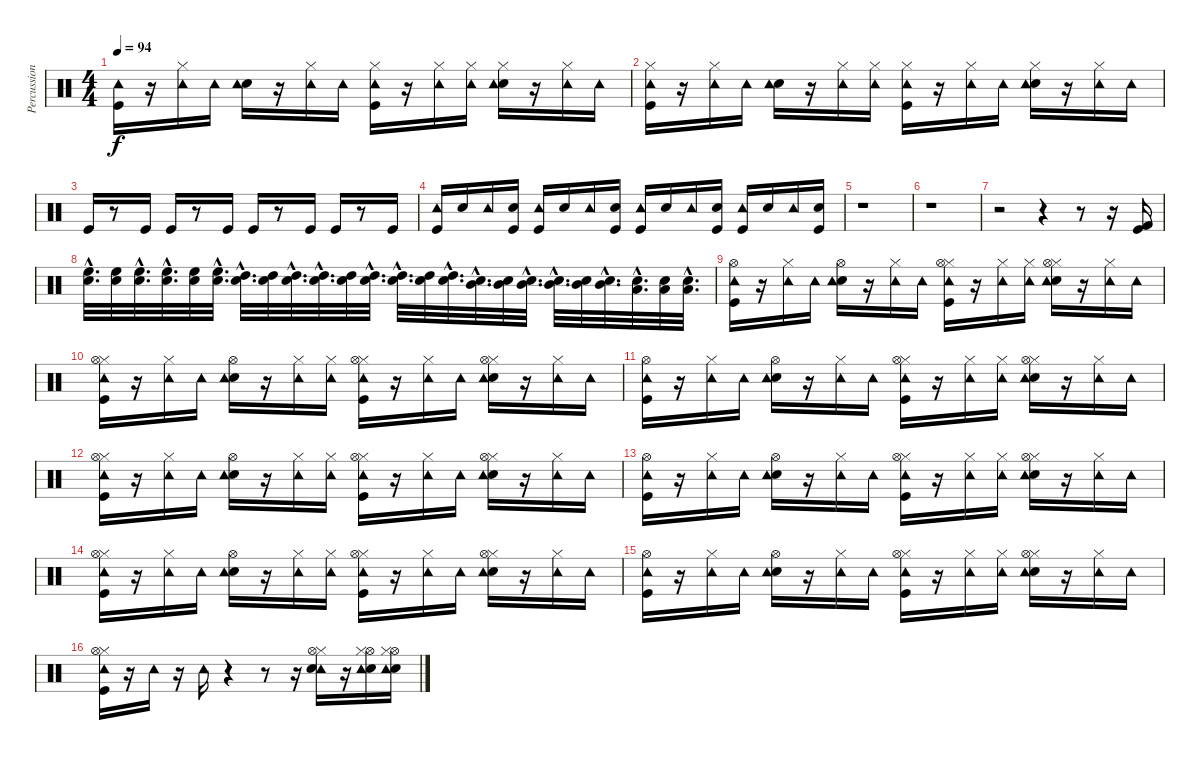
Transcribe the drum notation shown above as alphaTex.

\track ("Percussions/From Midi" "Percussion") {instrument percussion}
\staff {score}
\articulation defaults
\ts (4 4)
\tempo 94
\clef neutral
\ks c
("Kick (hit)" "Tambourine (hit)").16{dy f} r.16 ("Hi-Hat (closed)" "Tambourine (hit)").16 "Tambourine (hit)".16 ("Electric Snare (hit)" "Tambourine (hit)").16 r.16 ("Hi-Hat (closed)" "Tambourine (hit)").16 "Tambourine (hit)".16 ("Kick (hit)" "Hi-Hat (closed)" "Tambourine (hit)").16 r.16 ("Hi-Hat (closed)" "Tambourine (hit)").16 ("Hi-Hat (closed)" "Tambourine (hit)").16 ("Electric Snare (hit)" "Hi-Hat (closed)" "Tambourine (hit)").16 r.16 ("Hi-Hat (closed)" "Tambourine (hit)").16 "Tambourine (hit)".16 |
("Kick (hit)" "Hi-Hat (closed)" "Tambourine (hit)").16 r.16 ("Hi-Hat (closed)" "Tambourine (hit)").16 "Tambourine (hit)".16 ("Electric Snare (hit)" "Tambourine (hit)").16 r.16 ("Hi-Hat (closed)" "Tambourine (hit)").16 ("Hi-Hat (closed)" "Tambourine (hit)").16 ("Kick (hit)" "Hi-Hat (closed)" "Tambourine (hit)").16 r.16 ("Hi-Hat (closed)" "Tambourine (hit)").16 "Tambourine (hit)".16 ("Electric Snare (hit)" "Hi-Hat (closed)" "Tambourine (hit)").16 r.16 ("Hi-Hat (closed)" "Tambourine (hit)").16 "Tambourine (hit)".16 |
"Kick (hit)".16 r.8 "Kick (hit)".16 "Kick (hit)".16 r.8 "Kick (hit)".16 "Kick (hit)".16 r.8 "Kick (hit)".16 "Kick (hit)".16 r.8 "Kick (hit)".16 |
("Tambourine (hit)" "Kick (hit)").16 "Electric Snare (hit)".16 "Tambourine (hit)".16 ("Electric Snare (hit)" "Kick (hit)").16 ("Tambourine (hit)" "Kick (hit)").16 "Electric Snare (hit)".16 "Tambourine (hit)".16 ("Electric Snare (hit)" "Kick (hit)").16 ("Tambourine (hit)" "Kick (hit)").16 "Electric Snare (hit)".16 "Tambourine (hit)".16 ("Electric Snare (hit)" "Kick (hit)").16 ("Tambourine (hit)" "Kick (hit)").16 "Electric Snare (hit)".16 "Tambourine (hit)".16 ("Electric Snare (hit)" "Kick (hit)").16 |
r.1 |
r.1 |
r.2 r.4 r.8 r.16 ("Kick (hit) 2" "Kick (hit)").16 |
("High Floor Tom (hit)"{hac} "Electric Snare (hit)"{hac}).32{d} ("High Floor Tom (hit)" "Electric Snare (hit)").32 ("High Floor Tom (hit)"{hac} "Electric Snare (hit)"{hac}).32{d} ("High Floor Tom (hit)"{hac} "Electric Snare (hit)"{hac}).32{d} ("High Floor Tom (hit)" "Electric Snare (hit)").32 ("High Floor Tom (hit)"{hac} "Electric Snare (hit)"{hac}).32{d} ("High Tom (hit)"{hac} "Electric Snare (hit)"{hac}).32{d} ("High Tom (hit)" "Electric Snare (hit)").32 ("High Tom (hit)"{hac} "Electric Snare (hit)"{hac}).32{d} ("High Tom (hit)"{hac} "Electric Snare (hit)"{hac}).32{d} ("High Tom (hit)" "Electric Snare (hit)").32 ("High Tom (hit)"{hac} "Electric Snare (hit)"{hac}).32{d} ("High Tom (hit)"{hac} "Electric Snare (hit)"{hac}).32{d} ("High Tom (hit)" "Electric Snare (hit)").32 ("High Tom (hit)"{hac} "Electric Snare (hit)"{hac}).32{d} ("Mid Tom (hit)"{hac} "Electric Snare (hit)"{hac}).32{d} ("Mid Tom (hit)" "Electric Snare (hit)").32 ("Mid Tom (hit)"{hac} "Electric Snare (hit)"{hac}).32{d} ("Mid Tom (hit)"{hac} "Electric Snare (hit)"{hac}).32{d} ("Mid Tom (hit)" "Electric Snare (hit)").32 ("Mid Tom (hit)"{hac} "Electric Snare (hit)"{hac}).32{d} ("Electric Snare (hit)"{hac} "Low Floor Tom (hit)"{hac}).32{d} ("Low Floor Tom (hit)" "Electric Snare (hit)").32 ("Low Floor Tom (hit)"{hac} "Electric Snare (hit)"{hac}).32{d} |
("Kick (hit)" "Tambourine (hit)" "Hi-Hat (open)").16 r.16 ("Hi-Hat (closed)" "Tambourine (hit)").16 "Tambourine (hit)".16 ("Electric Snare (hit)" "Tambourine (hit)" "Hi-Hat (open)").16 r.16 ("Hi-Hat (closed)" "Tambourine (hit)").16 "Tambourine (hit)".16 ("Kick (hit)" "Hi-Hat (closed)" "Tambourine (hit)" "Hi-Hat (open)").16 r.16 ("Hi-Hat (closed)" "Tambourine (hit)").16 ("Hi-Hat (closed)" "Tambourine (hit)").16 ("Electric Snare (hit)" "Hi-Hat (closed)" "Tambourine (hit)" "Hi-Hat (open)").16 r.16 ("Hi-Hat (closed)" "Tambourine (hit)").16 "Tambourine (hit)".16 |
("Kick (hit)" "Hi-Hat (closed)" "Tambourine (hit)" "Hi-Hat (open)").16 r.16 ("Hi-Hat (closed)" "Tambourine (hit)").16 "Tambourine (hit)".16 ("Electric Snare (hit)" "Tambourine (hit)" "Hi-Hat (open)").16 r.16 ("Hi-Hat (closed)" "Tambourine (hit)").16 ("Hi-Hat (closed)" "Tambourine (hit)").16 ("Kick (hit)" "Hi-Hat (closed)" "Tambourine (hit)" "Hi-Hat (open)").16 r.16 ("Hi-Hat (closed)" "Tambourine (hit)").16 "Tambourine (hit)".16 ("Electric Snare (hit)" "Hi-Hat (closed)" "Tambourine (hit)" "Hi-Hat (open)").16 r.16 ("Hi-Hat (closed)" "Tambourine (hit)").16 "Tambourine (hit)".16 |
("Kick (hit)" "Tambourine (hit)" "Hi-Hat (open)").16 r.16 ("Hi-Hat (closed)" "Tambourine (hit)").16 "Tambourine (hit)".16 ("Electric Snare (hit)" "Tambourine (hit)" "Hi-Hat (open)").16 r.16 ("Hi-Hat (closed)" "Tambourine (hit)").16 "Tambourine (hit)".16 ("Kick (hit)" "Hi-Hat (closed)" "Tambourine (hit)" "Hi-Hat (open)").16 r.16 ("Hi-Hat (closed)" "Tambourine (hit)").16 ("Hi-Hat (closed)" "Tambourine (hit)").16 ("Electric Snare (hit)" "Hi-Hat (closed)" "Tambourine (hit)" "Hi-Hat (open)").16 r.16 ("Hi-Hat (closed)" "Tambourine (hit)").16 "Tambourine (hit)".16 |
("Kick (hit)" "Hi-Hat (closed)" "Tambourine (hit)" "Hi-Hat (open)").16 r.16 ("Hi-Hat (closed)" "Tambourine (hit)").16 "Tambourine (hit)".16 ("Electric Snare (hit)" "Tambourine (hit)" "Hi-Hat (open)").16 r.16 ("Hi-Hat (closed)" "Tambourine (hit)").16 ("Hi-Hat (closed)" "Tambourine (hit)").16 ("Kick (hit)" "Hi-Hat (closed)" "Tambourine (hit)" "Hi-Hat (open)").16 r.16 ("Hi-Hat (closed)" "Tambourine (hit)").16 "Tambourine (hit)".16 ("Electric Snare (hit)" "Hi-Hat (closed)" "Tambourine (hit)" "Hi-Hat (open)").16 r.16 ("Hi-Hat (closed)" "Tambourine (hit)").16 "Tambourine (hit)".16 |
("Kick (hit)" "Tambourine (hit)" "Hi-Hat (open)").16 r.16 ("Hi-Hat (closed)" "Tambourine (hit)").16 "Tambourine (hit)".16 ("Electric Snare (hit)" "Tambourine (hit)" "Hi-Hat (open)").16 r.16 ("Hi-Hat (closed)" "Tambourine (hit)").16 "Tambourine (hit)".16 ("Kick (hit)" "Hi-Hat (closed)" "Tambourine (hit)" "Hi-Hat (open)").16 r.16 ("Hi-Hat (closed)" "Tambourine (hit)").16 ("Hi-Hat (closed)" "Tambourine (hit)").16 ("Electric Snare (hit)" "Hi-Hat (closed)" "Tambourine (hit)" "Hi-Hat (open)").16 r.16 ("Hi-Hat (closed)" "Tambourine (hit)").16 "Tambourine (hit)".16 |
("Kick (hit)" "Hi-Hat (closed)" "Tambourine (hit)" "Hi-Hat (open)").16 r.16 ("Hi-Hat (closed)" "Tambourine (hit)").16 "Tambourine (hit)".16 ("Electric Snare (hit)" "Tambourine (hit)" "Hi-Hat (open)").16 r.16 ("Hi-Hat (closed)" "Tambourine (hit)").16 ("Hi-Hat (closed)" "Tambourine (hit)").16 ("Kick (hit)" "Hi-Hat (closed)" "Tambourine (hit)" "Hi-Hat (open)").16 r.16 ("Hi-Hat (closed)" "Tambourine (hit)").16 "Tambourine (hit)".16 ("Electric Snare (hit)" "Hi-Hat (closed)" "Tambourine (hit)" "Hi-Hat (open)").16 r.16 ("Hi-Hat (closed)" "Tambourine (hit)").16 "Tambourine (hit)".16 |
("Kick (hit)" "Tambourine (hit)" "Hi-Hat (open)").16 r.16 ("Hi-Hat (closed)" "Tambourine (hit)").16 "Tambourine (hit)".16 ("Electric Snare (hit)" "Tambourine (hit)" "Hi-Hat (open)").16 r.16 ("Hi-Hat (closed)" "Tambourine (hit)").16 "Tambourine (hit)".16 ("Kick (hit)" "Hi-Hat (closed)" "Tambourine (hit)" "Hi-Hat (open)").16 r.16 ("Hi-Hat (closed)" "Tambourine (hit)").16 ("Hi-Hat (closed)" "Tambourine (hit)").16 ("Electric Snare (hit)" "Hi-Hat (closed)" "Tambourine (hit)" "Hi-Hat (open)").16 r.16 ("Hi-Hat (closed)" "Tambourine (hit)").16 "Tambourine (hit)".16 |
("Kick (hit)" "Hi-Hat (closed)" "Tambourine (hit)" "Hi-Hat (open)").16 r.16 "Tambourine (hit)".16 r.16 "Tambourine (hit)".16 r.4 r.8 r.16 ("Hi-Hat (closed)" "Tambourine (hit)" "Hi-Hat (open)" "Electric Snare (hit)").16 r.16 ("Electric Snare (hit)" "Hi-Hat (open)" "Tambourine (hit)" "Hi-Hat (closed)").16 ("Electric Snare (hit)" "Hi-Hat (open)" "Tambourine (hit)" "Hi-Hat (closed)").16
